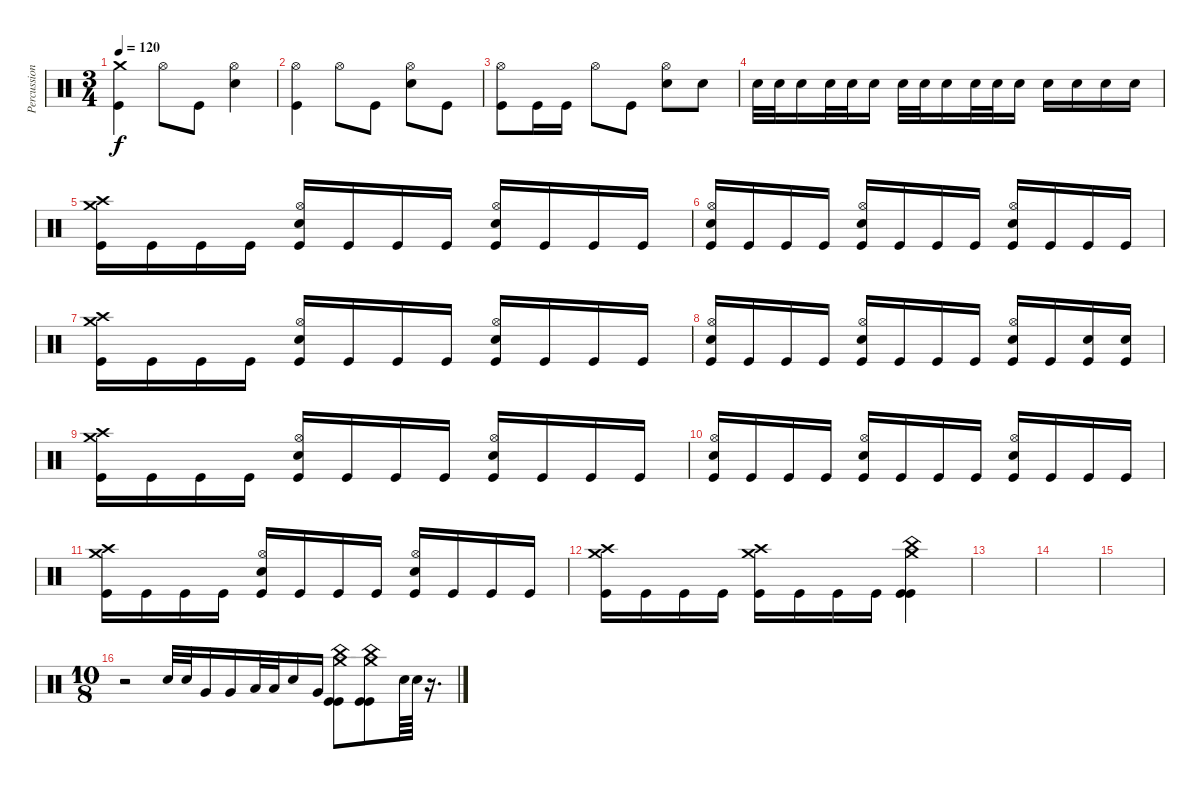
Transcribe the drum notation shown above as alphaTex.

\track ("Percussion" "Percussion") {instrument percussion}
\staff {score}
\articulation defaults
\ts (3 4)
\tempo 120
\clef neutral
\ks c
("Crash medium (hit)" "Kick (hit)").4{dy f} "Hi-Hat (open)".8 "Kick (hit)".8 ("Hi-Hat (open)" "Snare (hit) 2").4 |
("Hi-Hat (open)" "Kick (hit)").4 "Hi-Hat (open)".8 "Kick (hit)".8 ("Hi-Hat (open)" "Snare (hit) 2").8 "Kick (hit)".8 |
("Hi-Hat (open)" "Kick (hit)").8 "Kick (hit)".16 "Kick (hit)".16 "Hi-Hat (open)".8 "Kick (hit)".8 ("Hi-Hat (open)" "Snare (hit) 2").8 "Snare (hit) 2".8 |
"Snare (hit) 2".32 "Snare (hit) 2".32 "Snare (hit) 2".16 "Snare (hit) 2".32 "Snare (hit) 2".32 "Snare (hit) 2".16 "Snare (hit) 2".32 "Snare (hit) 2".32 "Snare (hit) 2".16 "Snare (hit) 2".32 "Snare (hit) 2".32 "Snare (hit) 2".16 "Snare (hit) 2".16 "Snare (hit) 2".16 "Snare (hit) 2".16 "Snare (hit) 2".16 |
("Crash medium (hit)" "Crash high (hit)" "Kick (hit)").16 "Kick (hit)".16 "Kick (hit)".16 "Kick (hit)".16 ("Hi-Hat (open)" "Snare (hit) 2" "Kick (hit)").16 "Kick (hit)".16 "Kick (hit)".16 "Kick (hit)".16 ("Hi-Hat (open)" "Snare (hit) 2" "Kick (hit)").16 "Kick (hit)".16 "Kick (hit)".16 "Kick (hit)".16 |
("Hi-Hat (open)" "Snare (hit) 2" "Kick (hit)").16 "Kick (hit)".16 "Kick (hit)".16 "Kick (hit)".16 ("Hi-Hat (open)" "Snare (hit) 2" "Kick (hit)").16 "Kick (hit)".16 "Kick (hit)".16 "Kick (hit)".16 ("Hi-Hat (open)" "Snare (hit) 2" "Kick (hit)").16 "Kick (hit)".16 "Kick (hit)".16 "Kick (hit)".16 |
("Crash medium (hit)" "Crash high (hit)" "Kick (hit)").16 "Kick (hit)".16 "Kick (hit)".16 "Kick (hit)".16 ("Hi-Hat (open)" "Snare (hit) 2" "Kick (hit)").16 "Kick (hit)".16 "Kick (hit)".16 "Kick (hit)".16 ("Hi-Hat (open)" "Snare (hit) 2" "Kick (hit)").16 "Kick (hit)".16 "Kick (hit)".16 "Kick (hit)".16 |
("Hi-Hat (open)" "Snare (hit) 2" "Kick (hit)").16 "Kick (hit)".16 "Kick (hit)".16 "Kick (hit)".16 ("Hi-Hat (open)" "Snare (hit) 2" "Kick (hit)").16 "Kick (hit)".16 "Kick (hit)".16 "Kick (hit)".16 ("Hi-Hat (open)" "Snare (hit) 2" "Kick (hit)").16 "Kick (hit)".16 ("Snare (hit) 2" "Kick (hit)").16 ("Snare (hit) 2" "Kick (hit)").16 |
("Crash medium (hit)" "Crash high (hit)" "Kick (hit)").16 "Kick (hit)".16 "Kick (hit)".16 "Kick (hit)".16 ("Hi-Hat (open)" "Snare (hit) 2" "Kick (hit)").16 "Kick (hit)".16 "Kick (hit)".16 "Kick (hit)".16 ("Hi-Hat (open)" "Snare (hit) 2" "Kick (hit)").16 "Kick (hit)".16 "Kick (hit)".16 "Kick (hit)".16 |
("Hi-Hat (open)" "Snare (hit) 2" "Kick (hit)").16 "Kick (hit)".16 "Kick (hit)".16 "Kick (hit)".16 ("Hi-Hat (open)" "Snare (hit) 2" "Kick (hit)").16 "Kick (hit)".16 "Kick (hit)".16 "Kick (hit)".16 ("Hi-Hat (open)" "Snare (hit) 2" "Kick (hit)").16 "Kick (hit)".16 "Kick (hit)".16 "Kick (hit)".16 |
("Crash medium (hit)" "Crash high (hit)" "Kick (hit)").16 "Kick (hit)".16 "Kick (hit)".16 "Kick (hit)".16 ("Hi-Hat (open)" "Snare (hit) 2" "Kick (hit)").16 "Kick (hit)".16 "Kick (hit)".16 "Kick (hit)".16 ("Hi-Hat (open)" "Snare (hit) 2" "Kick (hit)").16 "Kick (hit)".16 "Kick (hit)".16 "Kick (hit)".16 |
("Crash medium (hit)" "Crash high (hit)" "Kick (hit)").16 "Kick (hit)".16 "Kick (hit)".16 "Kick (hit)".16 ("Crash medium (hit)" "Crash high (hit)" "Kick (hit)").16 "Kick (hit)".16 "Kick (hit)".16 "Kick (hit)".16 ("Crash medium (hit)" "China (hit)" "Kick (hit)" "Kick (hit)").4 |
|
|
|
\ts (10 8)
r.2 "Electric Snare (hit)".32 "Electric Snare (hit)".32 "Very Low Tom (hit)".16 "Very Low Tom (hit)".16 "Low Tom (hit)".32 "Low Tom (hit)".32 "Electric Snare (hit)".16 "Very Low Tom (hit)".16 ("Crash medium (hit)" "China (hit)" "Kick (hit)" "Kick (hit)").8 ("Crash medium (hit)" "China (hit)" "Kick (hit)" "Kick (hit)").8 "Snare (hit) 2".64 "Snare (hit) 2".64 r.16{d}
